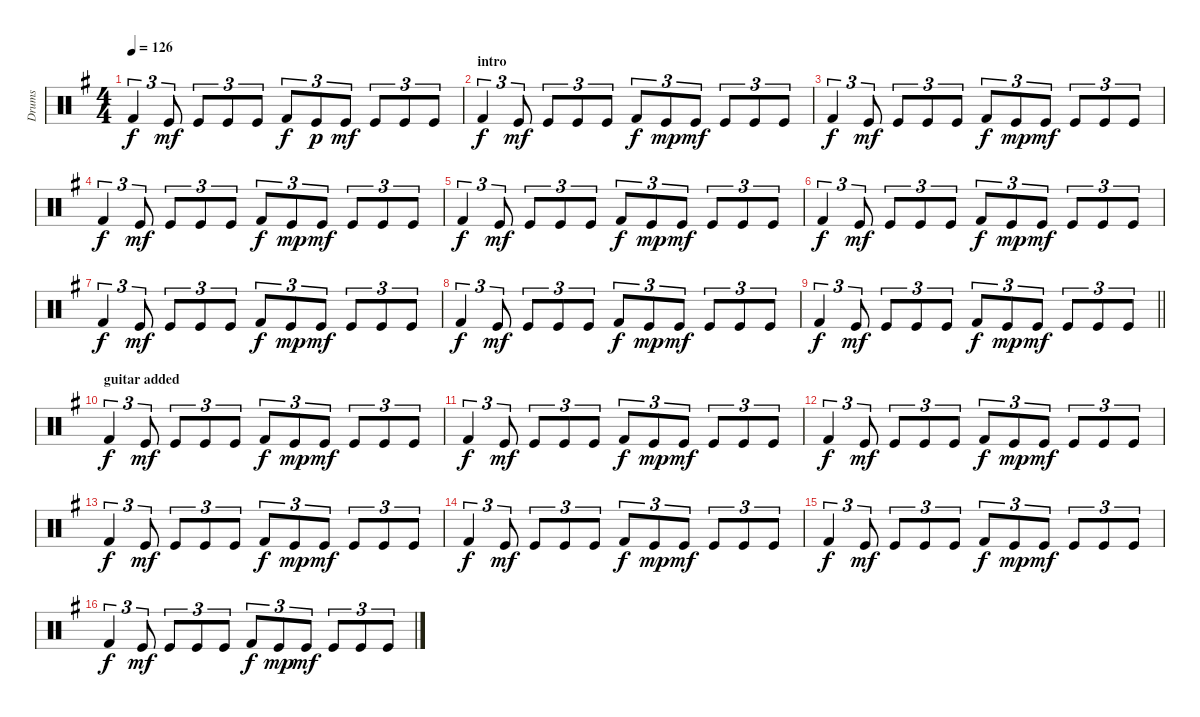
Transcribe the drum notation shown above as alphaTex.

\track ("Drums" "Drums") {instrument percussion}
\staff {score}
\articulation defaults
\ts (4 4)
\tempo 126
\clef neutral
\ks eminor "Kick (hit) 2".4{tu (3 2) dy f volume 8} "Kick (hit)".8{tu (3 2) dy mf} "Kick (hit)".8{tu (3 2)} "Kick (hit)".8{tu (3 2)} "Kick (hit)".8{tu (3 2)} "Kick (hit) 2".8{tu (3 2) dy f} "Kick (hit)".8{tu (3 2) dy p} "Kick (hit)".8{tu (3 2) dy mf} "Kick (hit)".8{tu (3 2)} "Kick (hit)".8{tu (3 2)} "Kick (hit)".8{tu (3 2)}
|
\section ("" "intro")
"Kick (hit) 2".4{tu (3 2) dy f} "Kick (hit)".8{tu (3 2) dy mf} "Kick (hit)".8{tu (3 2)} "Kick (hit)".8{tu (3 2)} "Kick (hit)".8{tu (3 2)} "Kick (hit) 2".8{tu (3 2) dy f} "Kick (hit)".8{tu (3 2) dy mp} "Kick (hit)".8{tu (3 2) dy mf} "Kick (hit)".8{tu (3 2)} "Kick (hit)".8{tu (3 2)} "Kick (hit)".8{tu (3 2)} |
"Kick (hit) 2".4{tu (3 2) dy f} "Kick (hit)".8{tu (3 2) dy mf} "Kick (hit)".8{tu (3 2)} "Kick (hit)".8{tu (3 2)} "Kick (hit)".8{tu (3 2)} "Kick (hit) 2".8{tu (3 2) dy f} "Kick (hit)".8{tu (3 2) dy mp} "Kick (hit)".8{tu (3 2) dy mf} "Kick (hit)".8{tu (3 2)} "Kick (hit)".8{tu (3 2)} "Kick (hit)".8{tu (3 2)} |
"Kick (hit) 2".4{tu (3 2) dy f} "Kick (hit)".8{tu (3 2) dy mf} "Kick (hit)".8{tu (3 2)} "Kick (hit)".8{tu (3 2)} "Kick (hit)".8{tu (3 2)} "Kick (hit) 2".8{tu (3 2) dy f} "Kick (hit)".8{tu (3 2) dy mp} "Kick (hit)".8{tu (3 2) dy mf} "Kick (hit)".8{tu (3 2)} "Kick (hit)".8{tu (3 2)} "Kick (hit)".8{tu (3 2)} |
"Kick (hit) 2".4{tu (3 2) dy f} "Kick (hit)".8{tu (3 2) dy mf} "Kick (hit)".8{tu (3 2)} "Kick (hit)".8{tu (3 2)} "Kick (hit)".8{tu (3 2)} "Kick (hit) 2".8{tu (3 2) dy f} "Kick (hit)".8{tu (3 2) dy mp} "Kick (hit)".8{tu (3 2) dy mf} "Kick (hit)".8{tu (3 2)} "Kick (hit)".8{tu (3 2)} "Kick (hit)".8{tu (3 2)} |
"Kick (hit) 2".4{tu (3 2) dy f} "Kick (hit)".8{tu (3 2) dy mf} "Kick (hit)".8{tu (3 2)} "Kick (hit)".8{tu (3 2)} "Kick (hit)".8{tu (3 2)} "Kick (hit) 2".8{tu (3 2) dy f} "Kick (hit)".8{tu (3 2) dy mp} "Kick (hit)".8{tu (3 2) dy mf} "Kick (hit)".8{tu (3 2)} "Kick (hit)".8{tu (3 2)} "Kick (hit)".8{tu (3 2)} |
"Kick (hit) 2".4{tu (3 2) dy f} "Kick (hit)".8{tu (3 2) dy mf} "Kick (hit)".8{tu (3 2)} "Kick (hit)".8{tu (3 2)} "Kick (hit)".8{tu (3 2)} "Kick (hit) 2".8{tu (3 2) dy f} "Kick (hit)".8{tu (3 2) dy mp} "Kick (hit)".8{tu (3 2) dy mf} "Kick (hit)".8{tu (3 2)} "Kick (hit)".8{tu (3 2)} "Kick (hit)".8{tu (3 2)} |
"Kick (hit) 2".4{tu (3 2) dy f} "Kick (hit)".8{tu (3 2) dy mf} "Kick (hit)".8{tu (3 2)} "Kick (hit)".8{tu (3 2)} "Kick (hit)".8{tu (3 2)} "Kick (hit) 2".8{tu (3 2) dy f} "Kick (hit)".8{tu (3 2) dy mp} "Kick (hit)".8{tu (3 2) dy mf} "Kick (hit)".8{tu (3 2)} "Kick (hit)".8{tu (3 2)} "Kick (hit)".8{tu (3 2)} |
\barLineRight lightlight "Kick (hit) 2".4{tu (3 2) dy f} "Kick (hit)".8{tu (3 2) dy mf} "Kick (hit)".8{tu (3 2)} "Kick (hit)".8{tu (3 2)} "Kick (hit)".8{tu (3 2)} "Kick (hit) 2".8{tu (3 2) dy f} "Kick (hit)".8{tu (3 2) dy mp} "Kick (hit)".8{tu (3 2) dy mf} "Kick (hit)".8{tu (3 2)} "Kick (hit)".8{tu (3 2)} "Kick (hit)".8{tu (3 2)}
|
\section ("" "guitar added")
"Kick (hit) 2".4{tu (3 2) dy f} "Kick (hit)".8{tu (3 2) dy mf} "Kick (hit)".8{tu (3 2)} "Kick (hit)".8{tu (3 2)} "Kick (hit)".8{tu (3 2)} "Kick (hit) 2".8{tu (3 2) dy f} "Kick (hit)".8{tu (3 2) dy mp} "Kick (hit)".8{tu (3 2) dy mf} "Kick (hit)".8{tu (3 2)} "Kick (hit)".8{tu (3 2)} "Kick (hit)".8{tu (3 2)} |
"Kick (hit) 2".4{tu (3 2) dy f} "Kick (hit)".8{tu (3 2) dy mf} "Kick (hit)".8{tu (3 2)} "Kick (hit)".8{tu (3 2)} "Kick (hit)".8{tu (3 2)} "Kick (hit) 2".8{tu (3 2) dy f} "Kick (hit)".8{tu (3 2) dy mp} "Kick (hit)".8{tu (3 2) dy mf} "Kick (hit)".8{tu (3 2)} "Kick (hit)".8{tu (3 2)} "Kick (hit)".8{tu (3 2)} |
"Kick (hit) 2".4{tu (3 2) dy f} "Kick (hit)".8{tu (3 2) dy mf} "Kick (hit)".8{tu (3 2)} "Kick (hit)".8{tu (3 2)} "Kick (hit)".8{tu (3 2)} "Kick (hit) 2".8{tu (3 2) dy f} "Kick (hit)".8{tu (3 2) dy mp} "Kick (hit)".8{tu (3 2) dy mf} "Kick (hit)".8{tu (3 2)} "Kick (hit)".8{tu (3 2)} "Kick (hit)".8{tu (3 2)} |
"Kick (hit) 2".4{tu (3 2) dy f} "Kick (hit)".8{tu (3 2) dy mf} "Kick (hit)".8{tu (3 2)} "Kick (hit)".8{tu (3 2)} "Kick (hit)".8{tu (3 2)} "Kick (hit) 2".8{tu (3 2) dy f} "Kick (hit)".8{tu (3 2) dy mp} "Kick (hit)".8{tu (3 2) dy mf} "Kick (hit)".8{tu (3 2)} "Kick (hit)".8{tu (3 2)} "Kick (hit)".8{tu (3 2)} |
"Kick (hit) 2".4{tu (3 2) dy f} "Kick (hit)".8{tu (3 2) dy mf} "Kick (hit)".8{tu (3 2)} "Kick (hit)".8{tu (3 2)} "Kick (hit)".8{tu (3 2)} "Kick (hit) 2".8{tu (3 2) dy f} "Kick (hit)".8{tu (3 2) dy mp} "Kick (hit)".8{tu (3 2) dy mf} "Kick (hit)".8{tu (3 2)} "Kick (hit)".8{tu (3 2)} "Kick (hit)".8{tu (3 2)} |
"Kick (hit) 2".4{tu (3 2) dy f} "Kick (hit)".8{tu (3 2) dy mf} "Kick (hit)".8{tu (3 2)} "Kick (hit)".8{tu (3 2)} "Kick (hit)".8{tu (3 2)} "Kick (hit) 2".8{tu (3 2) dy f} "Kick (hit)".8{tu (3 2) dy mp} "Kick (hit)".8{tu (3 2) dy mf} "Kick (hit)".8{tu (3 2)} "Kick (hit)".8{tu (3 2)} "Kick (hit)".8{tu (3 2)} |
"Kick (hit) 2".4{tu (3 2) dy f} "Kick (hit)".8{tu (3 2) dy mf} "Kick (hit)".8{tu (3 2)} "Kick (hit)".8{tu (3 2)} "Kick (hit)".8{tu (3 2)} "Kick (hit) 2".8{tu (3 2) dy f} "Kick (hit)".8{tu (3 2) dy mp} "Kick (hit)".8{tu (3 2) dy mf} "Kick (hit)".8{tu (3 2)} "Kick (hit)".8{tu (3 2)} "Kick (hit)".8{tu (3 2)}
